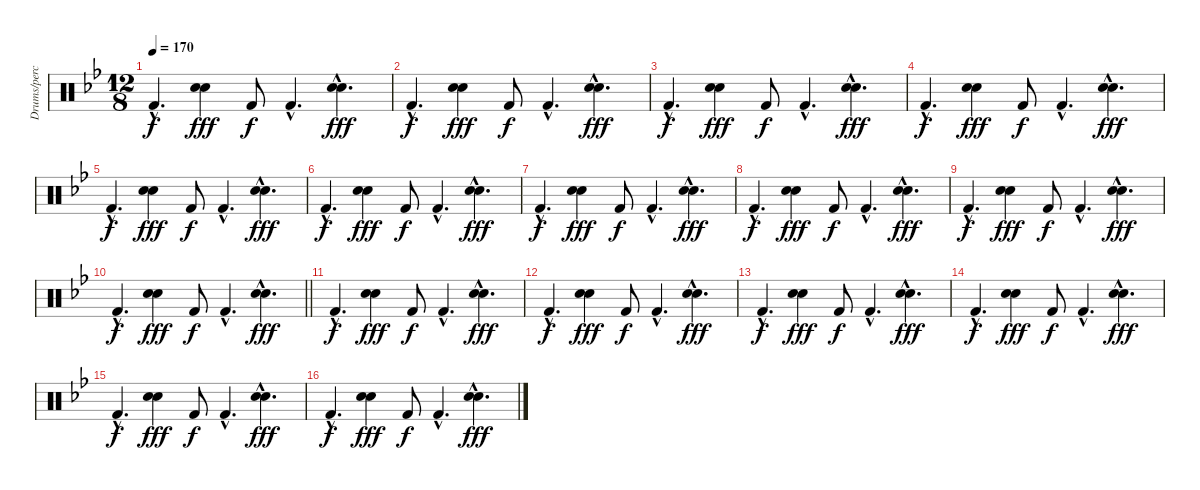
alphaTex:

\track ("Drums/percussion" "Drums/perc") {instrument percussion}
\staff {score}
\articulation defaults
\ts (12 8)
\tempo 170
\clef neutral
\ks bb "Kick (hit) 2"{hac}.4{d dy f}
("Hand Clap (hit)" "Snare (hit) 2").4{dy fff} "Kick (hit) 2".8{dy f} "Kick (hit) 2"{hac}.4{d} ("Hand Clap (hit)"{hac} "Snare (hit) 2"{hac}).4{d dy fff} |
"Kick (hit) 2"{hac}.4{d dy f} ("Hand Clap (hit)" "Snare (hit) 2").4{dy fff} "Kick (hit) 2".8{dy f} "Kick (hit) 2"{hac}.4{d} ("Hand Clap (hit)"{hac} "Snare (hit) 2"{hac}).4{d dy fff} |
"Kick (hit) 2"{hac}.4{d dy f} ("Hand Clap (hit)" "Snare (hit) 2").4{dy fff} "Kick (hit) 2".8{dy f} "Kick (hit) 2"{hac}.4{d} ("Hand Clap (hit)"{hac} "Snare (hit) 2"{hac}).4{d dy fff} |
"Kick (hit) 2"{hac}.4{d dy f} ("Hand Clap (hit)" "Snare (hit) 2").4{dy fff} "Kick (hit) 2".8{dy f} "Kick (hit) 2"{hac}.4{d} ("Hand Clap (hit)"{hac} "Snare (hit) 2"{hac}).4{d dy fff} |
"Kick (hit) 2"{hac}.4{d dy f} ("Hand Clap (hit)" "Snare (hit) 2").4{dy fff} "Kick (hit) 2".8{dy f} "Kick (hit) 2"{hac}.4{d} ("Hand Clap (hit)"{hac} "Snare (hit) 2"{hac}).4{d dy fff} |
"Kick (hit) 2"{hac}.4{d dy f} ("Hand Clap (hit)" "Snare (hit) 2").4{dy fff} "Kick (hit) 2".8{dy f} "Kick (hit) 2"{hac}.4{d} ("Hand Clap (hit)"{hac} "Snare (hit) 2"{hac}).4{d dy fff} |
"Kick (hit) 2"{hac}.4{d dy f} ("Hand Clap (hit)" "Snare (hit) 2").4{dy fff} "Kick (hit) 2".8{dy f} "Kick (hit) 2"{hac}.4{d} ("Hand Clap (hit)"{hac} "Snare (hit) 2"{hac}).4{d dy fff} |
"Kick (hit) 2"{hac}.4{d dy f} ("Hand Clap (hit)" "Snare (hit) 2").4{dy fff} "Kick (hit) 2".8{dy f} "Kick (hit) 2"{hac}.4{d} ("Hand Clap (hit)"{hac} "Snare (hit) 2"{hac}).4{d dy fff} |
"Kick (hit) 2"{hac}.4{d dy f} ("Hand Clap (hit)" "Snare (hit) 2").4{dy fff} "Kick (hit) 2".8{dy f} "Kick (hit) 2"{hac}.4{d} ("Hand Clap (hit)"{hac} "Snare (hit) 2"{hac}).4{d dy fff} |
\barLineRight lightlight "Kick (hit) 2"{hac}.4{d dy f}
("Hand Clap (hit)" "Snare (hit) 2").4{dy fff} "Kick (hit) 2".8{dy f} "Kick (hit) 2"{hac}.4{d} ("Hand Clap (hit)"{hac} "Snare (hit) 2"{hac}).4{d dy fff} |
"Kick (hit) 2"{hac}.4{d dy f} ("Hand Clap (hit)" "Snare (hit) 2").4{dy fff} "Kick (hit) 2".8{dy f} "Kick (hit) 2"{hac}.4{d} ("Hand Clap (hit)"{hac} "Snare (hit) 2"{hac}).4{d dy fff} |
"Kick (hit) 2"{hac}.4{d dy f} ("Hand Clap (hit)" "Snare (hit) 2").4{dy fff} "Kick (hit) 2".8{dy f} "Kick (hit) 2"{hac}.4{d} ("Hand Clap (hit)"{hac} "Snare (hit) 2"{hac}).4{d dy fff} |
"Kick (hit) 2"{hac}.4{d dy f} ("Hand Clap (hit)" "Snare (hit) 2").4{dy fff} "Kick (hit) 2".8{dy f} "Kick (hit) 2"{hac}.4{d} ("Hand Clap (hit)"{hac} "Snare (hit) 2"{hac}).4{d dy fff} |
"Kick (hit) 2"{hac}.4{d dy f} ("Hand Clap (hit)" "Snare (hit) 2").4{dy fff} "Kick (hit) 2".8{dy f} "Kick (hit) 2"{hac}.4{d} ("Hand Clap (hit)"{hac} "Snare (hit) 2"{hac}).4{d dy fff} |
"Kick (hit) 2"{hac}.4{d dy f} ("Hand Clap (hit)" "Snare (hit) 2").4{dy fff} "Kick (hit) 2".8{dy f} "Kick (hit) 2"{hac}.4{d} ("Hand Clap (hit)"{hac} "Snare (hit) 2"{hac}).4{d dy fff} |
"Kick (hit) 2"{hac}.4{d dy f} ("Hand Clap (hit)" "Snare (hit) 2").4{dy fff} "Kick (hit) 2".8{dy f} "Kick (hit) 2"{hac}.4{d} ("Hand Clap (hit)"{hac} "Snare (hit) 2"{hac}).4{d dy fff}
